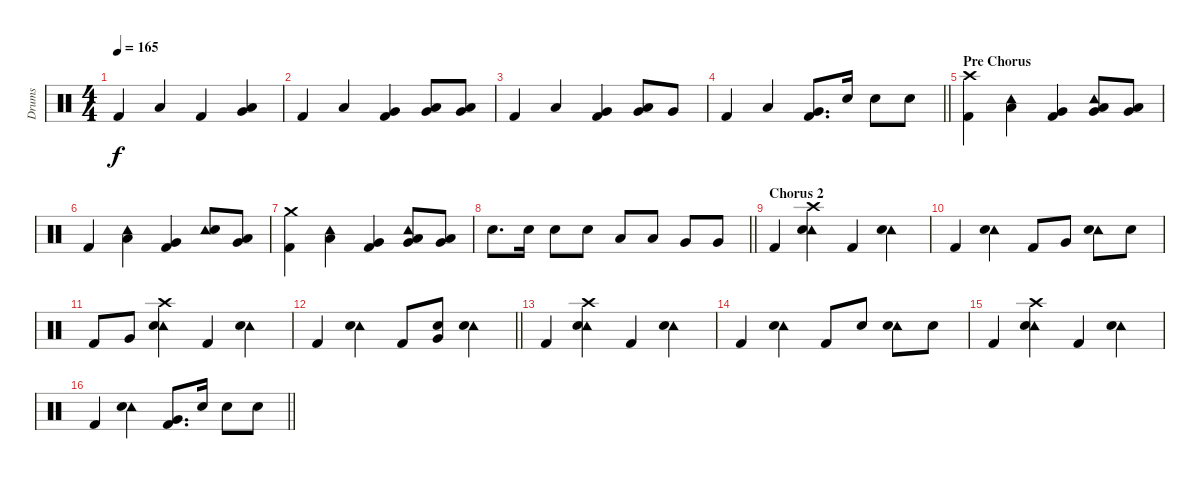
\track ("Drums" "Drums") {instrument percussion}
\staff {score}
\articulation defaults
\ts (4 4)
\tempo 165
\clef neutral
\ks c "Kick (hit) 2".4{dy f} "Low Tom (hit)".4 "Kick (hit) 2".4
("Low Tom (hit)" "Very Low Tom (hit)").4 |
"Kick (hit) 2".4 "Low Tom (hit)".4 ("Very Low Tom (hit)" "Kick (hit) 2").4 ("Low Tom (hit)" "Very Low Tom (hit)").8 ("Low Tom (hit)" "Very Low Tom (hit)").8 |
"Kick (hit) 2".4 "Low Tom (hit)".4 ("Very Low Tom (hit)" "Kick (hit) 2").4 ("Low Tom (hit)" "Very Low Tom (hit)").8 "Very Low Tom (hit)".8 |
\barLineRight lightlight "Kick (hit) 2".4 "Low Tom (hit)".4
("Very Low Tom (hit)" "Kick (hit) 2").8{d} "Snare (hit) 2".16 "Snare (hit) 2".8 "Snare (hit) 2".8 |
\section ("" "Pre Chorus")
("Crash high (hit)" "Kick (hit) 2").4 ("Tambourine (hit)" "Low Tom (hit)").4 ("Very Low Tom (hit)" "Kick (hit) 2").4 ("Tambourine (hit)" "Low Tom (hit)" "Very Low Tom (hit)").8 ("Low Tom (hit)" "Very Low Tom (hit)").8 |
"Kick (hit) 2".4 ("Tambourine (hit)" "Low Tom (hit)").4 ("Very Low Tom (hit)" "Kick (hit) 2").4 ("Tambourine (hit)" "Snare (hit) 2").8 ("Low Tom (hit)" "Very Low Tom (hit)").8 |
("Crash medium (hit)" "Kick (hit) 2").4 ("Tambourine (hit)" "Low Tom (hit)").4 ("Very Low Tom (hit)" "Kick (hit) 2").4 ("Tambourine (hit)" "Low Tom (hit)" "Very Low Tom (hit)").8 ("Low Tom (hit)" "Very Low Tom (hit)").8 |
\barLineRight lightlight "Snare (hit) 2".8{d} "Snare (hit) 2".16 "Snare (hit) 2".8 "Snare (hit) 2".8 "Low Tom (hit)".8 "Low Tom (hit)".8 "Very Low Tom (hit)".8 "Very Low Tom (hit)".8
|
\section ("" "Chorus 2")
"Kick (hit) 2".4 ("Crash high (hit)" "Tambourine (hit)" "Snare (hit) 2").4 "Kick (hit) 2".4 ("Tambourine (hit)" "Snare (hit) 2").4 |
"Kick (hit) 2".4 ("Tambourine (hit)" "Snare (hit) 2").4 "Kick (hit) 2".8 "Very Low Tom (hit)".8 ("Tambourine (hit)" "Snare (hit) 2").8 "Snare (hit) 2".8 |
"Kick (hit) 2".8 "Very Low Tom (hit)".8 ("Crash high (hit)" "Tambourine (hit)" "Snare (hit) 2").4 "Kick (hit) 2".4 ("Tambourine (hit)" "Snare (hit) 2").4 |
\barLineRight lightlight "Kick (hit) 2".4
("Tambourine (hit)" "Snare (hit) 2").4 "Kick (hit) 2".8 ("Snare (hit) 2" "Very Low Tom (hit)").8 ("Tambourine (hit)" "Snare (hit) 2").4 |
"Kick (hit) 2".4 ("Crash high (hit)" "Tambourine (hit)" "Snare (hit) 2").4 "Kick (hit) 2".4 ("Tambourine (hit)" "Snare (hit) 2").4 |
"Kick (hit) 2".4 ("Tambourine (hit)" "Snare (hit) 2").4 "Kick (hit) 2".8 "Snare (hit) 2".8 ("Tambourine (hit)" "Snare (hit) 2").8 "Snare (hit) 2".8 |
"Kick (hit) 2".4 ("Crash high (hit)" "Tambourine (hit)" "Snare (hit) 2").4 "Kick (hit) 2".4 ("Tambourine (hit)" "Snare (hit) 2").4 |
\barLineRight lightlight "Kick (hit) 2".4
("Tambourine (hit)" "Snare (hit) 2").4 ("Very Low Tom (hit)" "Kick (hit) 2").8{d} "Snare (hit) 2".16 "Snare (hit) 2".8 "Snare (hit) 2".8
